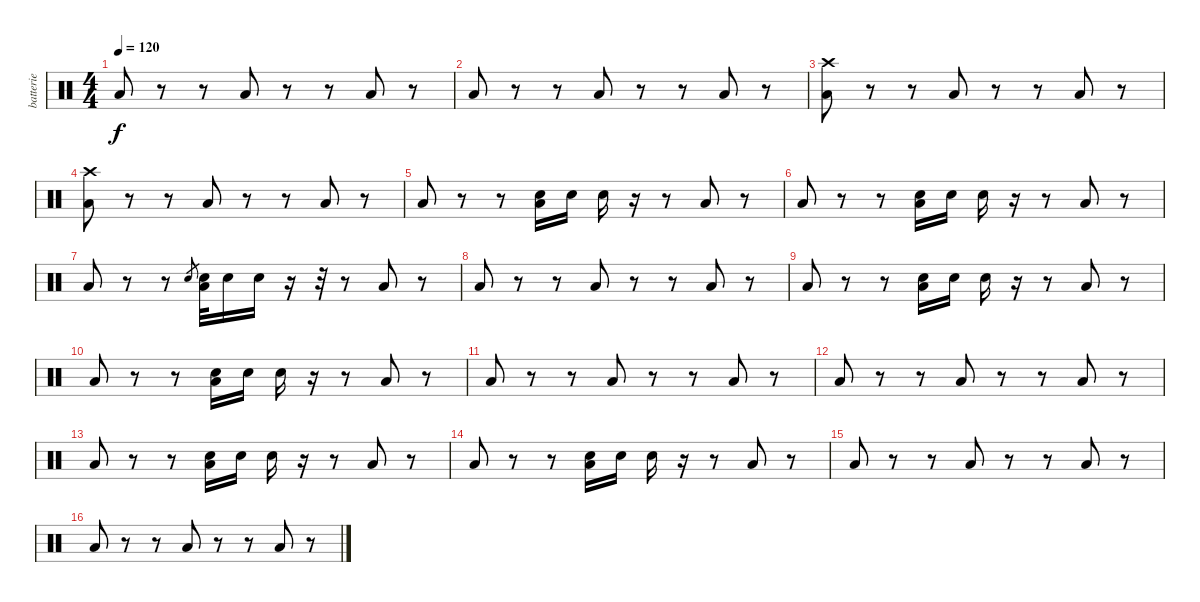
\track ("batterie" "batterie") {instrument percussion}
\staff {score}
\articulation defaults
\ts (4 4)
\tempo 120
\clef neutral
\ks c "Low Floor Tom (hit)".8{dy f}
r.8 r.8 "Low Floor Tom (hit)".8 r.8 r.8 "Low Floor Tom (hit)".8 r.8 |
"Low Floor Tom (hit)".8 r.8 r.8 "Low Floor Tom (hit)".8 r.8 r.8 "Low Floor Tom (hit)".8 r.8 |
("Crash high (hit)" "Low Floor Tom (hit)").8 r.8 r.8 "Low Floor Tom (hit)".8 r.8 r.8 "Low Floor Tom (hit)".8 r.8 |
("Crash high (hit)" "Low Floor Tom (hit)").8 r.8 r.8 "Low Floor Tom (hit)".8 r.8 r.8 "Low Floor Tom (hit)".8 r.8 |
"Low Floor Tom (hit)".8 r.8 r.8 ("Low Floor Tom (hit)" "Electric Snare (hit)").16 "Electric Snare (hit)".16 "Electric Snare (hit)".16 r.16 r.8 "Low Floor Tom (hit)".8 r.8 |
"Low Floor Tom (hit)".8 r.8 r.8 ("Low Floor Tom (hit)" "Electric Snare (hit)").16 "Electric Snare (hit)".16 "Electric Snare (hit)".16 r.16 r.8 "Low Floor Tom (hit)".8 r.8 |
"Low Floor Tom (hit)".8 r.8 r.8 "Electric Snare (hit)".8{gr} ("Low Floor Tom (hit)" "Electric Snare (hit)").32 "Electric Snare (hit)".16 "Electric Snare (hit)".16 r.16 r.32 r.8 "Low Floor Tom (hit)".8 r.8 |
"Low Floor Tom (hit)".8 r.8 r.8 "Low Floor Tom (hit)".8 r.8 r.8 "Low Floor Tom (hit)".8 r.8 |
"Low Floor Tom (hit)".8 r.8 r.8 ("Low Floor Tom (hit)" "Electric Snare (hit)").16 "Electric Snare (hit)".16 "Electric Snare (hit)".16 r.16 r.8 "Low Floor Tom (hit)".8 r.8 |
"Low Floor Tom (hit)".8 r.8 r.8 ("Low Floor Tom (hit)" "Electric Snare (hit)").16 "Electric Snare (hit)".16 "Electric Snare (hit)".16 r.16 r.8 "Low Floor Tom (hit)".8 r.8 |
"Low Floor Tom (hit)".8 r.8 r.8 "Low Floor Tom (hit)".8 r.8 r.8 "Low Floor Tom (hit)".8 r.8 |
"Low Floor Tom (hit)".8 r.8 r.8 "Low Floor Tom (hit)".8 r.8 r.8 "Low Floor Tom (hit)".8 r.8 |
"Low Floor Tom (hit)".8 r.8 r.8 ("Low Floor Tom (hit)" "Electric Snare (hit)").16 "Electric Snare (hit)".16 "Electric Snare (hit)".16 r.16 r.8 "Low Floor Tom (hit)".8 r.8 |
"Low Floor Tom (hit)".8 r.8 r.8 ("Low Floor Tom (hit)" "Electric Snare (hit)").16 "Electric Snare (hit)".16 "Electric Snare (hit)".16 r.16 r.8 "Low Floor Tom (hit)".8 r.8 |
"Low Floor Tom (hit)".8 r.8 r.8 "Low Floor Tom (hit)".8 r.8 r.8 "Low Floor Tom (hit)".8 r.8 |
"Low Floor Tom (hit)".8 r.8 r.8 "Low Floor Tom (hit)".8 r.8 r.8 "Low Floor Tom (hit)".8 r.8
